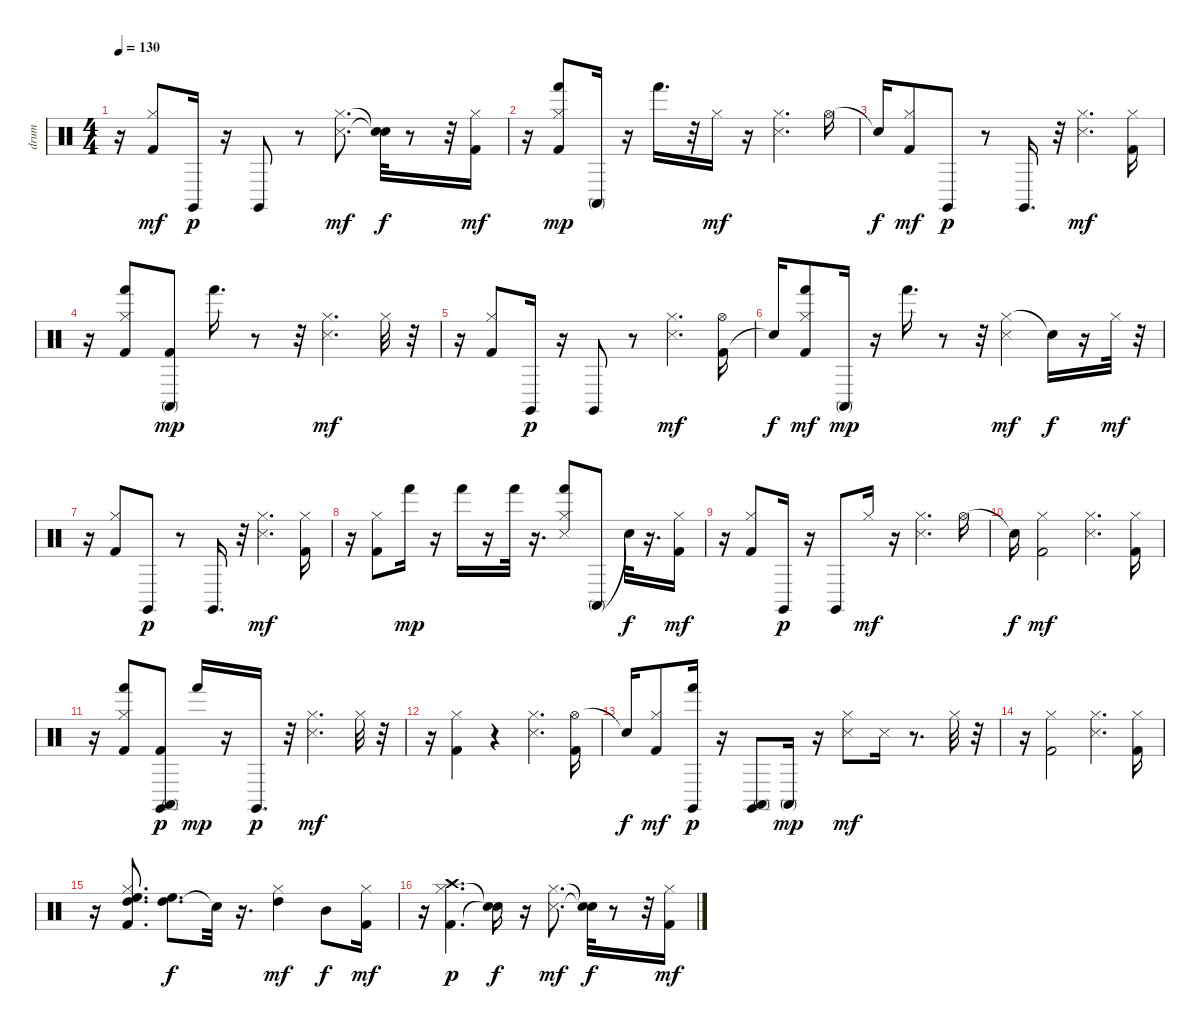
\track ("drum" "drum") {instrument percussion}
\staff {score}
\articulation defaults
\ts (4 4)
\tempo 130
\clef neutral
\ks c
r.16{dy mf} ("Kick (hit) 2" "Hi-Hat (closed)").8 "Claves (hit)".16{dy p} r.16 "Claves (hit)".8 r.8 ("Hi-Hat (closed)" "Snare (side stick) 3").8{d dy mf} ("Snare (hit)"{t} "Snare (hit)"{t}).32{dy f} r.8 r.32 ("Kick (hit) 2" "Hi-Hat (closed)").16{dy mf} |
r.16 ("Hi-Hat (closed)" "Hand (hit)" "Kick (hit) 2").8{dy mp} "Conga high (mute)".16 r.16 "Hand (hit)".16{d} r.32 "Hi-Hat (closed)".16{dy mf} r.16 ("Hi-Hat (closed)" "Snare (side stick) 3").4{d} "Hi-Hat (open)".16 |
"Snare (hit)"{t}.16{dy f} ("Kick (hit) 2" "Hi-Hat (closed)").8{dy mf} "Claves (hit)".8{dy p} r.8 "Claves (hit)".16{d} r.32 ("Hi-Hat (closed)" "Snare (side stick) 3").4{d dy mf} ("Kick (hit) 2" "Hi-Hat (closed)").16 |
r.16 ("Hand (hit)" "Hi-Hat (closed)" "Kick (hit) 2").8 ("Conga high (mute)" "Kick (hit) 2").8{dy mp} "Hand (hit)".16{d} r.8 r.32 ("Hi-Hat (closed)" "Snare (side stick) 3").4{d dy mf} "Hi-Hat (closed)".32 r.32 |
r.16 ("Kick (hit) 2" "Hi-Hat (closed)").8 "Claves (hit)".16{dy p} r.16 "Claves (hit)".8 r.8 ("Hi-Hat (closed)" "Snare (side stick) 3").4{d dy mf} ("Kick (hit) 2" "Hi-Hat (open)").16 |
"Snare (hit)"{t}.16{dy f} ("Hand (hit)" "Hi-Hat (closed)" "Kick (hit) 2").8{dy mf} "Conga high (mute)".16{dy mp} r.16 "Hand (hit)".16{d} r.8 r.32 ("Hi-Hat (closed)" "Snare (side stick) 3").4{dy mf} "Snare (hit)"{t}.16{dy f} r.16 "Hi-Hat (closed)".32{dy mf} r.32 |
r.16 ("Kick (hit) 2" "Hi-Hat (closed)").8 "Claves (hit)".8{dy p} r.8 "Claves (hit)".16{d} r.32 ("Hi-Hat (closed)" "Snare (side stick) 3").4{d dy mf} ("Kick (hit) 2" "Hi-Hat (closed)").16 |
r.16 ("Kick (hit) 2" "Hi-Hat (closed)").8 "Hand (hit)".16{dy mp} r.16 "Hand (hit)".16 r.16 "Hand (hit)".32 r.16{d} ("Snare (side stick) 3" "Hi-Hat (closed)" "Hand (hit)").8 "Conga high (mute)".8 "Snare (hit)"{t}.32{dy f} r.16{d} ("Kick (hit) 2" "Hi-Hat (closed)").16{dy mf} |
r.16 ("Kick (hit) 2" "Hi-Hat (closed)").8 "Claves (hit)".16{dy p} r.16 "Claves (hit)".8 "Hi-Hat (closed)".16{dy mf} r.16 ("Hi-Hat (closed)" "Snare (side stick) 3").4{d} "Hi-Hat (open)".16 |
"Snare (hit)"{t}.16{dy f} ("Kick (hit) 2" "Hi-Hat (closed)").2{dy mf} ("Snare (side stick) 3" "Hi-Hat (closed)").4{d} ("Hi-Hat (closed)" "Kick (hit) 2").16 |
r.16 ("Hand (hit)" "Hi-Hat (closed)" "Kick (hit) 2").8 ("Kick (hit) 2" "Conga high (mute)" "Claves (hit)").8{dy p} "Hand (hit)".16{dy mp} r.16 "Claves (hit)".16{d dy p} r.32 ("Hi-Hat (closed)" "Snare (side stick) 3").4{d dy mf} "Hi-Hat (closed)".32 r.32 |
r.16 ("Kick (hit) 2" "Hi-Hat (closed)").4 r.4 ("Hi-Hat (closed)" "Snare (side stick) 3").4{d} ("Hi-Hat (open)" "Kick (hit) 2").16 |
"Snare (hit)"{t}.16{dy f} ("Kick (hit) 2" "Hi-Hat (closed)").8{dy mf} ("Hand (hit)" "Claves (hit)").16{dy p} r.16 ("Conga high (mute)" "Claves (hit)").8 "Conga high (mute)".16{dy mp} r.16 ("Hi-Hat (closed)" "Snare (side stick) 3").8{dy mf} "Snare (side stick) 3".16 r.8{d} "Hi-Hat (closed)".32 r.32 |
r.16 ("Kick (hit) 2" "Hi-Hat (closed)").2 ("Hi-Hat (closed)" "Snare (side stick) 3").4{d} ("Kick (hit) 2" "Hi-Hat (closed)").16 |
r.16 ("Kick (hit) 2" "Hi-Hat (closed)" "High Floor Tom (hit)" "High Tom (hit)").8{d} ("High Tom (hit)" "High Floor Tom (hit)").8{d dy f} "Snare (hit)"{t}.32 r.16{d} ("Hi-Hat (closed)" "High Tom (hit)").4{dy mf} "Mid Tom (hit)".8{dy f} ("Kick (hit) 2" "Hi-Hat (closed)").16{dy mf} |
r.16 ("Kick (hit) 2" "Hi-Hat (closed)" "Crash high (hit)").4{d dy p} ("Snare (hit)"{t} "Snare (hit)"{t}).16{dy f} r.16 ("Hi-Hat (closed)" "Snare (side stick) 3").8{d dy mf} ("Snare (hit)"{t} "Snare (hit)"{t}).32{dy f} r.8 r.32 ("Hi-Hat (closed)" "Kick (hit) 2").16{dy mf}
